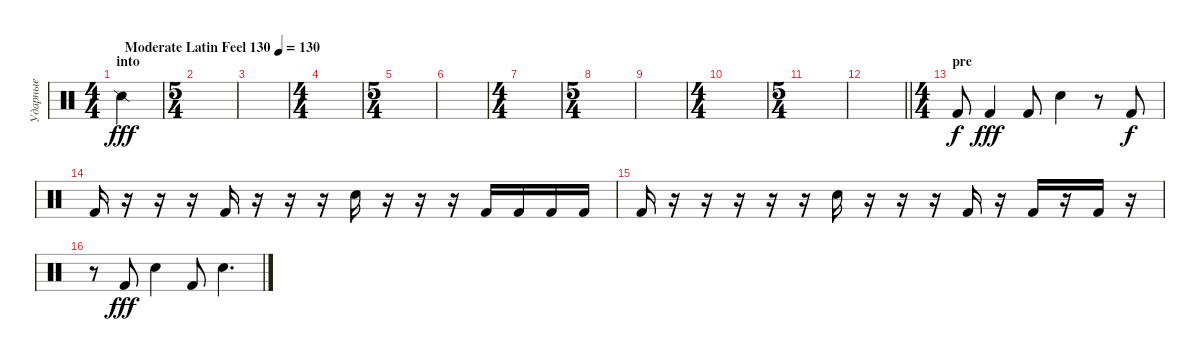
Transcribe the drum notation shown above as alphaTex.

\track ("Ударные" "Ударные") {instrument percussion}
\staff {score}
\articulation defaults
\ts (4 4)
\section ("" "into")
\tempo (130 "Moderate Latin Feel 130")
\clef neutral
\ks c "Snare (side stick) 2".4{dy fff}
|
\ts (5 4)
|
|
\ts (4 4)
|
\ts (5 4)
|
|
\ts (4 4)
|
\ts (5 4)
|
|
\ts (4 4)
|
\ts (5 4)
|
\barLineRight lightlight
|
\ts (4 4)
\section ("" "pre")
"Kick (hit) 2".8{dy f} "Kick (hit) 2".4{dy fff} "Kick (hit) 2".8 "Snare (hit) 2".4 r.8 "Kick (hit) 2".8{dy f} |
"Kick (hit) 2".16 r.16 r.16 r.16 "Kick (hit) 2".16 r.16 r.16 r.16 "Snare (hit) 2".16 r.16 r.16 r.16 "Kick (hit) 2".16 "Kick (hit) 2".16 "Kick (hit) 2".16 "Kick (hit) 2".16 |
"Kick (hit) 2".16 r.16 r.16 r.16 r.16 r.16 "Snare (hit) 2".16 r.16 r.16 r.16 "Kick (hit) 2".16 r.16 "Kick (hit) 2".16 r.16 "Kick (hit) 2".16 r.16 |
r.8 "Kick (hit) 2".8{dy fff} "Snare (hit) 2".4 "Kick (hit) 2".8 "Snare (hit) 2".4{d}
